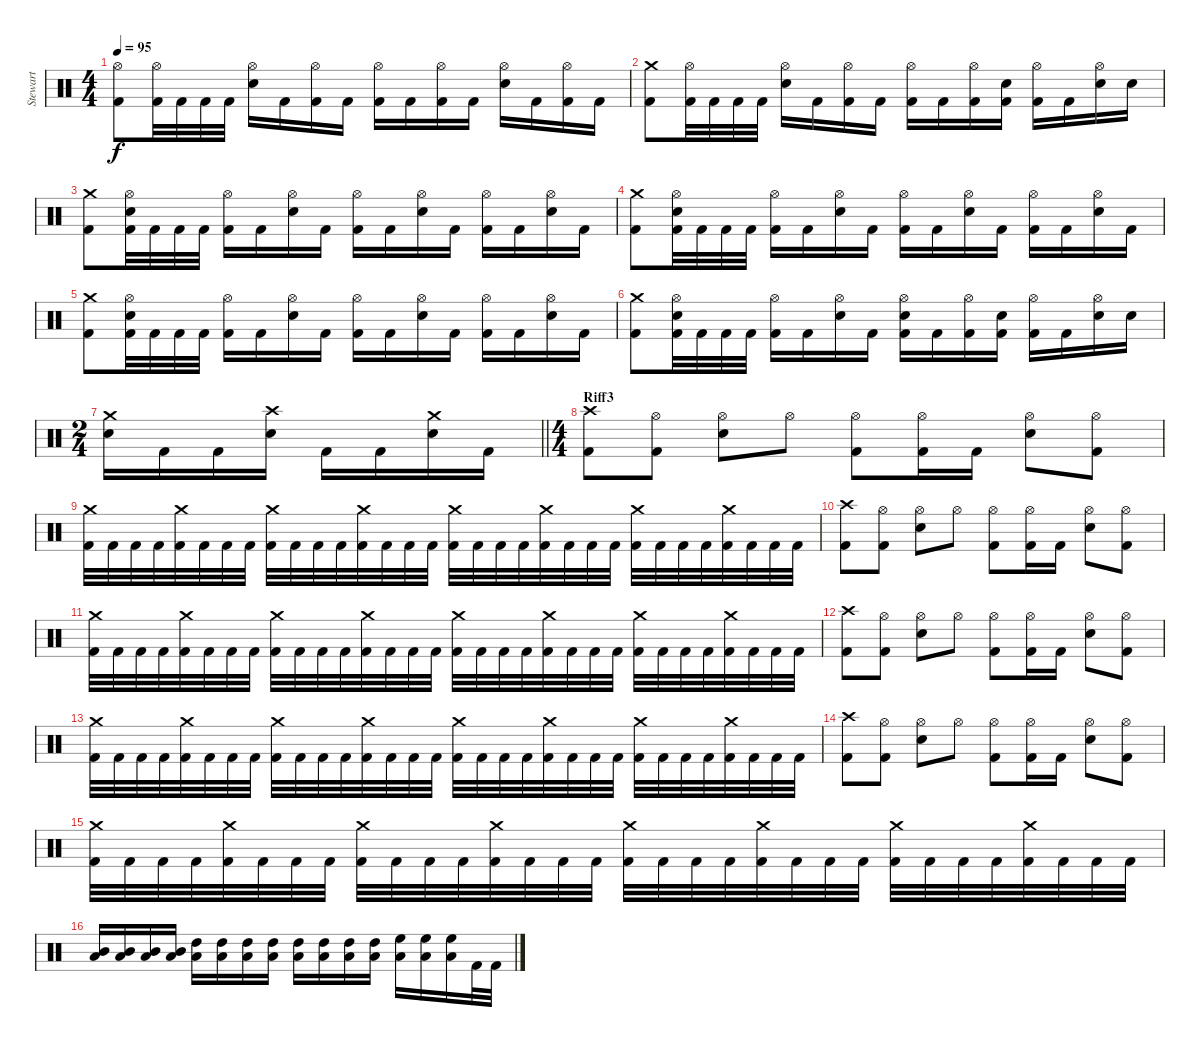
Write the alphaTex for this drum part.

\track ("Stewart" "Stewart") {instrument percussion}
\staff {score}
\articulation defaults
\ts (4 4)
\tempo 95
\clef neutral
\ks c
("Hi-Hat (open)" "Kick (hit) 2").8{dy f} ("Hi-Hat (open)" "Kick (hit) 2").32 "Kick (hit) 2".32 "Kick (hit) 2".32 "Kick (hit) 2".32 ("Hi-Hat (open)" "Electric Snare (hit)").16 "Kick (hit) 2".16 ("Hi-Hat (open)" "Kick (hit) 2").16 "Kick (hit) 2".16 ("Hi-Hat (open)" "Kick (hit) 2").16 "Kick (hit) 2".16 ("Hi-Hat (open)" "Kick (hit) 2").16 "Kick (hit) 2".16 ("Hi-Hat (open)" "Electric Snare (hit)").16 "Kick (hit) 2".16 ("Hi-Hat (open)" "Kick (hit) 2").16 "Kick (hit) 2".16 |
("Crash medium (hit)" "Kick (hit) 2").8 ("Hi-Hat (open)" "Kick (hit) 2").32 "Kick (hit) 2".32 "Kick (hit) 2".32 "Kick (hit) 2".32 ("Hi-Hat (open)" "Electric Snare (hit)").16 "Kick (hit) 2".16 ("Hi-Hat (open)" "Kick (hit) 2").16 "Kick (hit) 2".16 ("Hi-Hat (open)" "Kick (hit) 2").16 "Kick (hit) 2".16 ("Hi-Hat (open)" "Kick (hit) 2").16 ("Electric Snare (hit)" "Kick (hit) 2").16 ("Hi-Hat (open)" "Kick (hit) 2").16 "Kick (hit) 2".16 ("Hi-Hat (open)" "Electric Snare (hit)").16 "Electric Snare (hit)".16 |
("Crash medium (hit)" "Kick (hit) 2").8 ("Hi-Hat (open)" "Electric Snare (hit)" "Kick (hit) 2").32 "Kick (hit) 2".32 "Kick (hit) 2".32 "Kick (hit) 2".32 ("Hi-Hat (open)" "Kick (hit) 2").16 "Kick (hit) 2".16 ("Hi-Hat (open)" "Electric Snare (hit)").16 "Kick (hit) 2".16 ("Hi-Hat (open)" "Kick (hit) 2").16 "Kick (hit) 2".16 ("Hi-Hat (open)" "Electric Snare (hit)").16 "Kick (hit) 2".16 ("Hi-Hat (open)" "Kick (hit) 2").16 "Kick (hit) 2".16 ("Hi-Hat (open)" "Electric Snare (hit)").16 "Kick (hit) 2".16 |
("Crash medium (hit)" "Kick (hit) 2").8 ("Hi-Hat (open)" "Electric Snare (hit)" "Kick (hit) 2").32 "Kick (hit) 2".32 "Kick (hit) 2".32 "Kick (hit) 2".32 ("Hi-Hat (open)" "Kick (hit) 2").16 "Kick (hit) 2".16 ("Hi-Hat (open)" "Electric Snare (hit)").16 "Kick (hit) 2".16 ("Hi-Hat (open)" "Kick (hit) 2").16 "Kick (hit) 2".16 ("Hi-Hat (open)" "Electric Snare (hit)").16 "Kick (hit) 2".16 ("Hi-Hat (open)" "Kick (hit) 2").16 "Kick (hit) 2".16 ("Hi-Hat (open)" "Electric Snare (hit)").16 "Kick (hit) 2".16 |
("Crash medium (hit)" "Kick (hit) 2").8 ("Hi-Hat (open)" "Electric Snare (hit)" "Kick (hit) 2").32 "Kick (hit) 2".32 "Kick (hit) 2".32 "Kick (hit) 2".32 ("Hi-Hat (open)" "Kick (hit) 2").16 "Kick (hit) 2".16 ("Hi-Hat (open)" "Electric Snare (hit)").16 "Kick (hit) 2".16 ("Hi-Hat (open)" "Kick (hit) 2").16 "Kick (hit) 2".16 ("Hi-Hat (open)" "Electric Snare (hit)").16 "Kick (hit) 2".16 ("Hi-Hat (open)" "Kick (hit) 2").16 "Kick (hit) 2".16 ("Hi-Hat (open)" "Electric Snare (hit)").16 "Kick (hit) 2".16 |
("Crash medium (hit)" "Kick (hit) 2").8 ("Hi-Hat (open)" "Electric Snare (hit)" "Kick (hit) 2").32 "Kick (hit) 2".32 "Kick (hit) 2".32 "Kick (hit) 2".32 ("Hi-Hat (open)" "Kick (hit) 2").16 "Kick (hit) 2".16 ("Hi-Hat (open)" "Electric Snare (hit)").16 "Kick (hit) 2".16 ("Hi-Hat (open)" "Electric Snare (hit)" "Kick (hit) 2").16 "Kick (hit) 2".16 ("Hi-Hat (open)" "Kick (hit) 2").16 ("Electric Snare (hit)" "Kick (hit) 2").16 ("Hi-Hat (open)" "Kick (hit) 2").16 "Kick (hit) 2".16 ("Hi-Hat (open)" "Electric Snare (hit)").16 "Electric Snare (hit)".16 |
\ts (2 4)
\barLineRight lightlight
("Crash medium (hit)" "Electric Snare (hit)").16 "Kick (hit) 2".16 "Kick (hit) 2".16 ("Crash high (hit)" "Electric Snare (hit)").16 "Kick (hit) 2".16 "Kick (hit) 2".16 ("Crash medium (hit)" "Electric Snare (hit)").16 "Kick (hit) 2".16 |
\ts (4 4)
\section ("" "Riff3")
("Crash high (hit)" "Kick (hit) 2").8 ("Hi-Hat (open)" "Kick (hit) 2").8 ("Hi-Hat (open)" "Electric Snare (hit)").8 "Hi-Hat (open)".8 ("Hi-Hat (open)" "Kick (hit) 2").8 ("Hi-Hat (open)" "Kick (hit) 2").16 "Kick (hit) 2".16 ("Hi-Hat (open)" "Electric Snare (hit)").8 ("Hi-Hat (open)" "Kick (hit) 2").8 |
("Crash medium (hit)" "Kick (hit) 2").32 "Kick (hit) 2".32 "Kick (hit) 2".32 "Kick (hit) 2".32 ("Crash medium (hit)" "Kick (hit) 2").32 "Kick (hit) 2".32 "Kick (hit) 2".32 "Kick (hit) 2".32 ("Crash medium (hit)" "Kick (hit) 2").32 "Kick (hit) 2".32 "Kick (hit) 2".32 "Kick (hit) 2".32 ("Crash medium (hit)" "Kick (hit) 2").32 "Kick (hit) 2".32 "Kick (hit) 2".32 "Kick (hit) 2".32 ("Crash medium (hit)" "Kick (hit) 2").32 "Kick (hit) 2".32 "Kick (hit) 2".32 "Kick (hit) 2".32 ("Crash medium (hit)" "Kick (hit) 2").32 "Kick (hit) 2".32 "Kick (hit) 2".32 "Kick (hit) 2".32 ("Crash medium (hit)" "Kick (hit) 2").32 "Kick (hit) 2".32 "Kick (hit) 2".32 "Kick (hit) 2".32 ("Crash medium (hit)" "Kick (hit) 2").32 "Kick (hit) 2".32 "Kick (hit) 2".32 "Kick (hit) 2".32 |
("Crash high (hit)" "Kick (hit) 2").8 ("Hi-Hat (open)" "Kick (hit) 2").8 ("Hi-Hat (open)" "Electric Snare (hit)").8 "Hi-Hat (open)".8 ("Hi-Hat (open)" "Kick (hit) 2").8 ("Hi-Hat (open)" "Kick (hit) 2").16 "Kick (hit) 2".16 ("Hi-Hat (open)" "Electric Snare (hit)").8 ("Hi-Hat (open)" "Kick (hit) 2").8 |
("Crash medium (hit)" "Kick (hit) 2").32 "Kick (hit) 2".32 "Kick (hit) 2".32 "Kick (hit) 2".32 ("Crash medium (hit)" "Kick (hit) 2").32 "Kick (hit) 2".32 "Kick (hit) 2".32 "Kick (hit) 2".32 ("Crash medium (hit)" "Kick (hit) 2").32 "Kick (hit) 2".32 "Kick (hit) 2".32 "Kick (hit) 2".32 ("Crash medium (hit)" "Kick (hit) 2").32 "Kick (hit) 2".32 "Kick (hit) 2".32 "Kick (hit) 2".32 ("Crash medium (hit)" "Kick (hit) 2").32 "Kick (hit) 2".32 "Kick (hit) 2".32 "Kick (hit) 2".32 ("Crash medium (hit)" "Kick (hit) 2").32 "Kick (hit) 2".32 "Kick (hit) 2".32 "Kick (hit) 2".32 ("Crash medium (hit)" "Kick (hit) 2").32 "Kick (hit) 2".32 "Kick (hit) 2".32 "Kick (hit) 2".32 ("Crash medium (hit)" "Kick (hit) 2").32 "Kick (hit) 2".32 "Kick (hit) 2".32 "Kick (hit) 2".32 |
("Crash high (hit)" "Kick (hit) 2").8 ("Hi-Hat (open)" "Kick (hit) 2").8 ("Hi-Hat (open)" "Electric Snare (hit)").8 "Hi-Hat (open)".8 ("Hi-Hat (open)" "Kick (hit) 2").8 ("Hi-Hat (open)" "Kick (hit) 2").16 "Kick (hit) 2".16 ("Hi-Hat (open)" "Electric Snare (hit)").8 ("Hi-Hat (open)" "Kick (hit) 2").8 |
("Crash medium (hit)" "Kick (hit) 2").32 "Kick (hit) 2".32 "Kick (hit) 2".32 "Kick (hit) 2".32 ("Crash medium (hit)" "Kick (hit) 2").32 "Kick (hit) 2".32 "Kick (hit) 2".32 "Kick (hit) 2".32 ("Crash medium (hit)" "Kick (hit) 2").32 "Kick (hit) 2".32 "Kick (hit) 2".32 "Kick (hit) 2".32 ("Crash medium (hit)" "Kick (hit) 2").32 "Kick (hit) 2".32 "Kick (hit) 2".32 "Kick (hit) 2".32 ("Crash medium (hit)" "Kick (hit) 2").32 "Kick (hit) 2".32 "Kick (hit) 2".32 "Kick (hit) 2".32 ("Crash medium (hit)" "Kick (hit) 2").32 "Kick (hit) 2".32 "Kick (hit) 2".32 "Kick (hit) 2".32 ("Crash medium (hit)" "Kick (hit) 2").32 "Kick (hit) 2".32 "Kick (hit) 2".32 "Kick (hit) 2".32 ("Crash medium (hit)" "Kick (hit) 2").32 "Kick (hit) 2".32 "Kick (hit) 2".32 "Kick (hit) 2".32 |
("Crash high (hit)" "Kick (hit) 2").8 ("Hi-Hat (open)" "Kick (hit) 2").8 ("Hi-Hat (open)" "Electric Snare (hit)").8 "Hi-Hat (open)".8 ("Hi-Hat (open)" "Kick (hit) 2").8 ("Hi-Hat (open)" "Kick (hit) 2").16 "Kick (hit) 2".16 ("Hi-Hat (open)" "Electric Snare (hit)").8 ("Hi-Hat (open)" "Kick (hit) 2").8 |
("Crash medium (hit)" "Kick (hit) 2").32 "Kick (hit) 2".32 "Kick (hit) 2".32 "Kick (hit) 2".32 ("Crash medium (hit)" "Kick (hit) 2").32 "Kick (hit) 2".32 "Kick (hit) 2".32 "Kick (hit) 2".32 ("Crash medium (hit)" "Kick (hit) 2").32 "Kick (hit) 2".32 "Kick (hit) 2".32 "Kick (hit) 2".32 ("Crash medium (hit)" "Kick (hit) 2").32 "Kick (hit) 2".32 "Kick (hit) 2".32 "Kick (hit) 2".32 ("Crash medium (hit)" "Kick (hit) 2").32 "Kick (hit) 2".32 "Kick (hit) 2".32 "Kick (hit) 2".32 ("Crash medium (hit)" "Kick (hit) 2").32 "Kick (hit) 2".32 "Kick (hit) 2".32 "Kick (hit) 2".32 ("Crash medium (hit)" "Kick (hit) 2").32 "Kick (hit) 2".32 "Kick (hit) 2".32 "Kick (hit) 2".32 ("Crash medium (hit)" "Kick (hit) 2").32 "Kick (hit) 2".32 "Kick (hit) 2".32 "Kick (hit) 2".32 |
("Mid Tom (hit)" "Low Tom (hit)").16 ("Mid Tom (hit)" "Low Tom (hit)").16 ("Mid Tom (hit)" "Low Tom (hit)").16 ("Mid Tom (hit)" "Low Tom (hit)").16 ("High Tom (hit)" "Low Tom (hit)").16 ("High Tom (hit)" "Low Tom (hit)").16 ("High Tom (hit)" "Low Tom (hit)").16 ("High Tom (hit)" "Low Tom (hit)").16 ("High Tom (hit)" "Low Tom (hit)").16 ("High Tom (hit)" "Low Tom (hit)").16 ("High Tom (hit)" "Low Tom (hit)").16 ("High Tom (hit)" "Low Tom (hit)").16 ("High Floor Tom (hit)" "Low Tom (hit)").16 ("High Floor Tom (hit)" "Low Tom (hit)").16 ("High Floor Tom (hit)" "Low Tom (hit)").16 "Kick (hit) 2".32 "Kick (hit) 2".32
